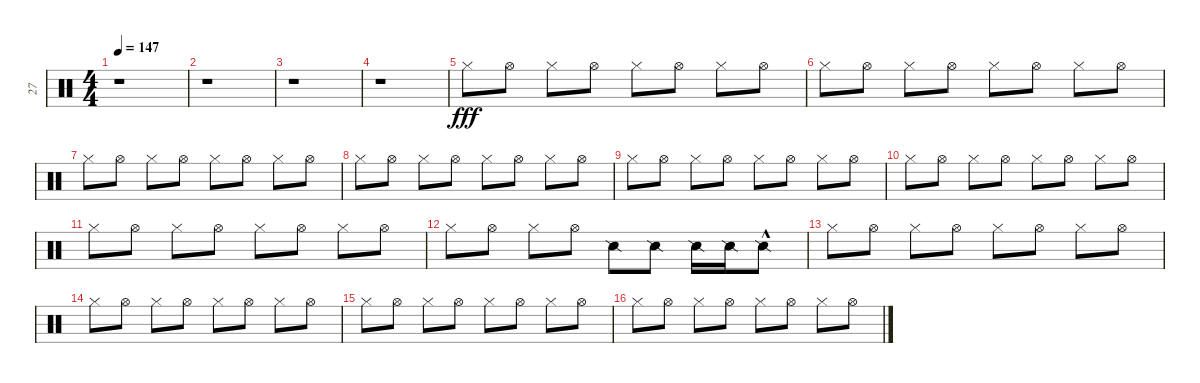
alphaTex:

\track ("27" "27") {instrument percussion}
\staff {score}
\articulation defaults
\ts (4 4)
\tempo 147
\clef neutral
\ks c
r.1{dy fff} |
r.1 |
r.1 |
r.1 |
"Hi-Hat (closed)".8 "Hi-Hat (open)".8 "Hi-Hat (closed)".8 "Hi-Hat (open)".8 "Hi-Hat (closed)".8 "Hi-Hat (open)".8 "Hi-Hat (closed)".8 "Hi-Hat (open)".8 |
"Hi-Hat (closed)".8 "Hi-Hat (open)".8 "Hi-Hat (closed)".8 "Hi-Hat (open)".8 "Hi-Hat (closed)".8 "Hi-Hat (open)".8 "Hi-Hat (closed)".8 "Hi-Hat (open)".8 |
"Hi-Hat (closed)".8 "Hi-Hat (open)".8 "Hi-Hat (closed)".8 "Hi-Hat (open)".8 "Hi-Hat (closed)".8 "Hi-Hat (open)".8 "Hi-Hat (closed)".8 "Hi-Hat (open)".8 |
"Hi-Hat (closed)".8 "Hi-Hat (open)".8 "Hi-Hat (closed)".8 "Hi-Hat (open)".8 "Hi-Hat (closed)".8 "Hi-Hat (open)".8 "Hi-Hat (closed)".8 "Hi-Hat (open)".8 |
"Hi-Hat (closed)".8 "Hi-Hat (open)".8 "Hi-Hat (closed)".8 "Hi-Hat (open)".8 "Hi-Hat (closed)".8 "Hi-Hat (open)".8 "Hi-Hat (closed)".8 "Hi-Hat (open)".8 |
"Hi-Hat (closed)".8 "Hi-Hat (open)".8 "Hi-Hat (closed)".8 "Hi-Hat (open)".8 "Hi-Hat (closed)".8 "Hi-Hat (open)".8 "Hi-Hat (closed)".8 "Hi-Hat (open)".8 |
"Hi-Hat (closed)".8 "Hi-Hat (open)".8 "Hi-Hat (closed)".8 "Hi-Hat (open)".8 "Hi-Hat (closed)".8 "Hi-Hat (open)".8 "Hi-Hat (closed)".8 "Hi-Hat (open)".8 |
"Hi-Hat (closed)".8 "Hi-Hat (open)".8 "Hi-Hat (closed)".8 "Hi-Hat (open)".8 "Snare (side stick) 2".8 "Snare (side stick) 2".8 "Snare (side stick) 2".16 "Snare (side stick) 2".16 "Snare (side stick) 2"{hac}.8 |
"Hi-Hat (closed)".8 "Hi-Hat (open)".8 "Hi-Hat (closed)".8 "Hi-Hat (open)".8 "Hi-Hat (closed)".8 "Hi-Hat (open)".8 "Hi-Hat (closed)".8 "Hi-Hat (open)".8 |
"Hi-Hat (closed)".8 "Hi-Hat (open)".8 "Hi-Hat (closed)".8 "Hi-Hat (open)".8 "Hi-Hat (closed)".8 "Hi-Hat (open)".8 "Hi-Hat (closed)".8 "Hi-Hat (open)".8 |
"Hi-Hat (closed)".8 "Hi-Hat (open)".8 "Hi-Hat (closed)".8 "Hi-Hat (open)".8 "Hi-Hat (closed)".8 "Hi-Hat (open)".8 "Hi-Hat (closed)".8 "Hi-Hat (open)".8 |
"Hi-Hat (closed)".8 "Hi-Hat (open)".8 "Hi-Hat (closed)".8 "Hi-Hat (open)".8 "Hi-Hat (closed)".8 "Hi-Hat (open)".8 "Hi-Hat (closed)".8 "Hi-Hat (open)".8
